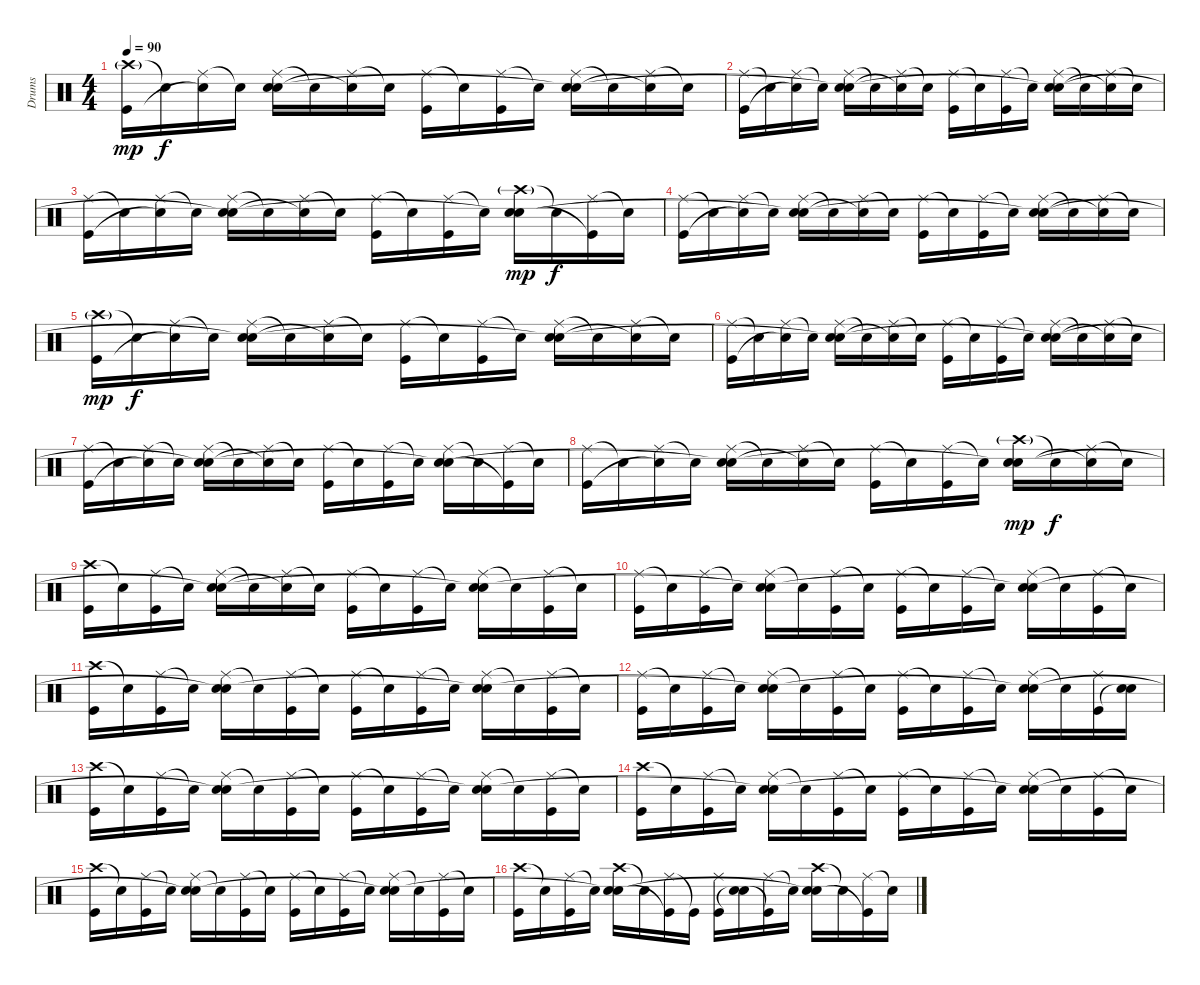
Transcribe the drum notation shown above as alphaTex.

\track ("Drums" "Drums") {instrument percussion}
\staff {score}
\articulation defaults
\ts (4 4)
\tempo 90
\clef neutral
\ks c
("Crash high (hit)"{g} "Kick (hit)").16{dy mp} "Snare (hit)"{t}.16{dy f} ("Ride (middle)" "Snare (hit)"{t}).16 "Snare (hit)"{t}.16 ("Ride (middle)" "Electric Snare (hit)" "Snare (hit)"{t}).16 "Snare (hit)"{t}.16 ("Ride (middle)" "Snare (hit)"{t}).16 "Snare (hit)"{t}.16 ("Ride (middle)" "Kick (hit)").16 "Snare (hit)"{t}.16 ("Ride (middle)" "Kick (hit)").16 "Snare (hit)"{t}.16 ("Ride (middle)" "Electric Snare (hit)" "Snare (hit)"{t}).16 "Snare (hit)"{t}.16 ("Ride (middle)" "Snare (hit)"{t}).16 "Snare (hit)"{t}.16 |
("Ride (middle)" "Kick (hit)").16 "Snare (hit)"{t}.16 ("Ride (middle)" "Snare (hit)"{t}).16 "Snare (hit)"{t}.16 ("Ride (middle)" "Electric Snare (hit)" "Snare (hit)"{t}).16 "Snare (hit)"{t}.16 ("Ride (middle)" "Snare (hit)"{t}).16 "Snare (hit)"{t}.16 ("Ride (middle)" "Kick (hit)").16 "Snare (hit)"{t}.16 ("Ride (middle)" "Kick (hit)").16 "Snare (hit)"{t}.16 ("Ride (middle)" "Electric Snare (hit)" "Snare (hit)"{t}).16 "Snare (hit)"{t}.16 ("Ride (middle)" "Snare (hit)"{t}).16 "Snare (hit)"{t}.16 |
("Ride (middle)" "Kick (hit)").16 "Snare (hit)"{t}.16 ("Ride (middle)" "Snare (hit)"{t}).16 "Snare (hit)"{t}.16 ("Ride (middle)" "Electric Snare (hit)" "Snare (hit)"{t}).16 "Snare (hit)"{t}.16 ("Ride (middle)" "Snare (hit)"{t}).16 "Snare (hit)"{t}.16 ("Ride (middle)" "Kick (hit)").16 "Snare (hit)"{t}.16 ("Ride (middle)" "Kick (hit)").16 "Snare (hit)"{t}.16 ("Crash high (hit)"{g} "Electric Snare (hit)" "Snare (hit)"{t}).16{dy mp} "Snare (hit)"{t}.16{dy f} ("Ride (middle)" "Kick (hit)"{t}).16 "Snare (hit)"{t}.16 |
("Ride (middle)" "Kick (hit)").16 "Snare (hit)"{t}.16 ("Ride (middle)" "Snare (hit)"{t}).16 "Snare (hit)"{t}.16 ("Ride (middle)" "Electric Snare (hit)" "Snare (hit)"{t}).16 "Snare (hit)"{t}.16 ("Ride (middle)" "Snare (hit)"{t}).16 "Snare (hit)"{t}.16 ("Ride (middle)" "Kick (hit)").16 "Snare (hit)"{t}.16 ("Ride (middle)" "Kick (hit)").16 "Snare (hit)"{t}.16 ("Ride (middle)" "Electric Snare (hit)" "Snare (hit)"{t}).16 "Snare (hit)"{t}.16 ("Ride (middle)" "Snare (hit)"{t}).16 "Snare (hit)"{t}.16 |
("Crash high (hit)"{g} "Kick (hit)").16{dy mp} "Snare (hit)"{t}.16{dy f} ("Ride (middle)" "Snare (hit)"{t}).16 "Snare (hit)"{t}.16 ("Ride (middle)" "Electric Snare (hit)" "Snare (hit)"{t}).16 "Snare (hit)"{t}.16 ("Ride (middle)" "Snare (hit)"{t}).16 "Snare (hit)"{t}.16 ("Ride (middle)" "Kick (hit)").16 "Snare (hit)"{t}.16 ("Ride (middle)" "Kick (hit)").16 "Snare (hit)"{t}.16 ("Ride (middle)" "Electric Snare (hit)" "Snare (hit)"{t}).16 "Snare (hit)"{t}.16 ("Ride (middle)" "Snare (hit)"{t}).16 "Snare (hit)"{t}.16 |
("Ride (middle)" "Kick (hit)").16 "Snare (hit)"{t}.16 ("Ride (middle)" "Snare (hit)"{t}).16 "Snare (hit)"{t}.16 ("Ride (middle)" "Electric Snare (hit)" "Snare (hit)"{t}).16 "Snare (hit)"{t}.16 ("Ride (middle)" "Snare (hit)"{t}).16 "Snare (hit)"{t}.16 ("Ride (middle)" "Kick (hit)").16 "Snare (hit)"{t}.16 ("Ride (middle)" "Kick (hit)").16 "Snare (hit)"{t}.16 ("Ride (middle)" "Electric Snare (hit)" "Snare (hit)"{t}).16 "Snare (hit)"{t}.16 ("Ride (middle)" "Snare (hit)"{t}).16 "Snare (hit)"{t}.16 |
("Ride (middle)" "Kick (hit)").16 "Snare (hit)"{t}.16 ("Ride (middle)" "Snare (hit)"{t}).16 "Snare (hit)"{t}.16 ("Ride (middle)" "Electric Snare (hit)" "Snare (hit)"{t}).16 "Snare (hit)"{t}.16 ("Ride (middle)" "Snare (hit)"{t}).16 "Snare (hit)"{t}.16 ("Ride (middle)" "Kick (hit)").16 "Snare (hit)"{t}.16 ("Ride (middle)" "Kick (hit)").16 "Snare (hit)"{t}.16 ("Ride (middle)" "Electric Snare (hit)" "Snare (hit)"{t}).16 "Snare (hit)"{t}.16 ("Ride (middle)" "Kick (hit)"{t}).16 "Snare (hit)"{t}.16 |
("Ride (middle)" "Kick (hit)").16 "Snare (hit)"{t}.16 ("Ride (middle)" "Snare (hit)"{t}).16 "Snare (hit)"{t}.16 ("Ride (middle)" "Electric Snare (hit)" "Snare (hit)"{t}).16 "Snare (hit)"{t}.16 ("Ride (middle)" "Snare (hit)"{t}).16 "Snare (hit)"{t}.16 ("Ride (middle)" "Kick (hit)").16 "Snare (hit)"{t}.16 ("Ride (middle)" "Kick (hit)").16 "Snare (hit)"{t}.16 ("Crash high (hit)"{g} "Electric Snare (hit)" "Snare (hit)"{t}).16{dy mp} "Snare (hit)"{t}.16{dy f} ("Ride (middle)" "Snare (hit)"{t}).16 "Snare (hit)"{t}.16 |
("Crash high (hit)" "Kick (hit)").16 "Snare (hit)"{t}.16 ("Ride (middle)" "Kick (hit)").16 "Snare (hit)"{t}.16 ("Ride (middle)" "Electric Snare (hit)" "Snare (hit)"{t}).16 "Snare (hit)"{t}.16 ("Ride (middle)" "Snare (hit)"{t}).16 "Snare (hit)"{t}.16 ("Ride (middle)" "Kick (hit)").16 "Snare (hit)"{t}.16 ("Ride (middle)" "Kick (hit)").16 "Snare (hit)"{t}.16 ("Ride (middle)" "Electric Snare (hit)" "Snare (hit)"{t}).16 "Snare (hit)"{t}.16 ("Ride (middle)" "Kick (hit)").16 "Snare (hit)"{t}.16 |
("Ride (middle)" "Kick (hit)").16 "Snare (hit)"{t}.16 ("Ride (middle)" "Kick (hit)").16 "Snare (hit)"{t}.16 ("Ride (middle)" "Electric Snare (hit)" "Snare (hit)"{t}).16 "Snare (hit)"{t}.16 ("Ride (middle)" "Kick (hit)").16 "Snare (hit)"{t}.16 ("Ride (middle)" "Kick (hit)").16 "Snare (hit)"{t}.16 ("Ride (middle)" "Kick (hit)").16 "Snare (hit)"{t}.16 ("Ride (middle)" "Electric Snare (hit)" "Snare (hit)"{t}).16 "Snare (hit)"{t}.16 ("Ride (middle)" "Kick (hit)").16 "Snare (hit)"{t}.16 |
("Crash high (hit)" "Kick (hit)").16 "Snare (hit)"{t}.16 ("Ride (middle)" "Kick (hit)").16 "Snare (hit)"{t}.16 ("Ride (middle)" "Electric Snare (hit)" "Snare (hit)"{t}).16 "Snare (hit)"{t}.16 ("Ride (middle)" "Kick (hit)").16 "Snare (hit)"{t}.16 ("Ride (middle)" "Kick (hit)").16 "Snare (hit)"{t}.16 ("Ride (middle)" "Kick (hit)").16 "Snare (hit)"{t}.16 ("Ride (middle)" "Electric Snare (hit)" "Snare (hit)"{t}).16 "Snare (hit)"{t}.16 ("Ride (middle)" "Kick (hit)").16 "Snare (hit)"{t}.16 |
("Ride (middle)" "Kick (hit)").16 "Snare (hit)"{t}.16 ("Ride (middle)" "Kick (hit)").16 "Snare (hit)"{t}.16 ("Ride (middle)" "Electric Snare (hit)" "Snare (hit)"{t}).16 "Snare (hit)"{t}.16 ("Ride (middle)" "Kick (hit)").16 "Snare (hit)"{t}.16 ("Ride (middle)" "Kick (hit)").16 "Snare (hit)"{t}.16 ("Ride (middle)" "Kick (hit)").16 "Snare (hit)"{t}.16 ("Ride (middle)" "Electric Snare (hit)" "Snare (hit)"{t}).16 "Snare (hit)"{t}.16 ("Ride (middle)" "Kick (hit)").16 ("Electric Snare (hit)" "Snare (hit)"{t}).16 |
("Crash high (hit)" "Kick (hit)").16 "Snare (hit)"{t}.16 ("Ride (middle)" "Kick (hit)").16 "Snare (hit)"{t}.16 ("Ride (middle)" "Electric Snare (hit)" "Snare (hit)"{t}).16 "Snare (hit)"{t}.16 ("Ride (middle)" "Kick (hit)").16 "Snare (hit)"{t}.16 ("Ride (middle)" "Kick (hit)").16 "Snare (hit)"{t}.16 ("Ride (middle)" "Kick (hit)").16 "Snare (hit)"{t}.16 ("Ride (middle)" "Electric Snare (hit)" "Snare (hit)"{t}).16 "Snare (hit)"{t}.16 ("Ride (middle)" "Kick (hit)").16 "Snare (hit)"{t}.16 |
("Crash high (hit)" "Kick (hit)").16 "Snare (hit)"{t}.16 ("Ride (middle)" "Kick (hit)").16 "Snare (hit)"{t}.16 ("Ride (middle)" "Electric Snare (hit)" "Snare (hit)"{t}).16 "Snare (hit)"{t}.16 ("Ride (middle)" "Kick (hit)").16 "Snare (hit)"{t}.16 ("Ride (middle)" "Kick (hit)").16 "Snare (hit)"{t}.16 ("Ride (middle)" "Kick (hit)").16 "Snare (hit)"{t}.16 ("Ride (middle)" "Electric Snare (hit)" "Snare (hit)"{t}).16 "Snare (hit)"{t}.16 ("Ride (middle)" "Kick (hit)").16 "Snare (hit)"{t}.16 |
("Crash high (hit)" "Kick (hit)").16 "Snare (hit)"{t}.16 ("Ride (middle)" "Kick (hit)").16 "Snare (hit)"{t}.16 ("Ride (middle)" "Electric Snare (hit)" "Snare (hit)"{t}).16 "Snare (hit)"{t}.16 ("Ride (middle)" "Kick (hit)").16 "Snare (hit)"{t}.16 ("Ride (middle)" "Kick (hit)").16 "Snare (hit)"{t}.16 ("Ride (middle)" "Kick (hit)").16 "Snare (hit)"{t}.16 ("Ride (middle)" "Electric Snare (hit)" "Snare (hit)"{t}).16 "Snare (hit)"{t}.16 ("Ride (middle)" "Kick (hit)").16 "Snare (hit)"{t}.16 |
("Crash high (hit)" "Kick (hit)").16 "Snare (hit)"{t}.16 ("Ride (middle)" "Kick (hit)").16 "Snare (hit)"{t}.16 ("Crash high (hit)" "Electric Snare (hit)" "Snare (hit)"{t}).16 "Snare (hit)"{t}.16 ("Ride (middle)" "Kick (hit)"{t}).16 "Kick (hit)"{t}.16 ("Ride (middle)" "Kick (hit)").16 ("Electric Snare (hit)" "Snare (hit)"{t}).16 ("Ride (middle)" "Kick (hit)"{t}).16 "Snare (hit)"{t}.16 ("Crash high (hit)" "Electric Snare (hit)" "Snare (hit)"{t}).16 "Snare (hit)"{t}.16 ("Ride (middle)" "Kick (hit)"{t}).16 "Snare (hit)"{t}.16
